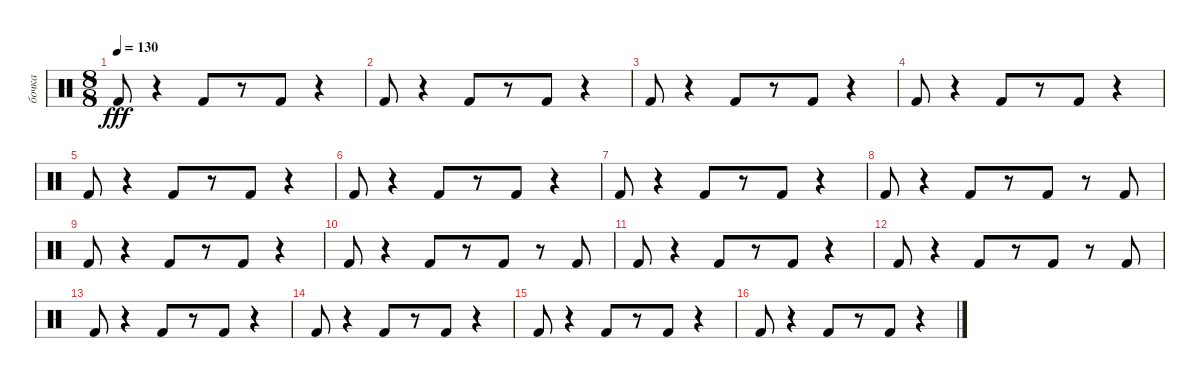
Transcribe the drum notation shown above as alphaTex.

\track ("бочка" "бочка") {instrument percussion}
\staff {score}
\articulation defaults
\ts (8 8)
\tempo 130
\clef neutral
\ks c "Kick (hit) 2".8{dy fff}
r.4 "Kick (hit) 2".8 r.8 "Kick (hit) 2".8 r.4 |
"Kick (hit) 2".8 r.4 "Kick (hit) 2".8 r.8 "Kick (hit) 2".8 r.4 |
"Kick (hit) 2".8 r.4 "Kick (hit) 2".8 r.8 "Kick (hit) 2".8 r.4 |
"Kick (hit) 2".8 r.4 "Kick (hit) 2".8 r.8 "Kick (hit) 2".8 r.4 |
"Kick (hit) 2".8 r.4 "Kick (hit) 2".8 r.8 "Kick (hit) 2".8 r.4 |
"Kick (hit) 2".8 r.4 "Kick (hit) 2".8 r.8 "Kick (hit) 2".8 r.4 |
"Kick (hit) 2".8 r.4 "Kick (hit) 2".8 r.8 "Kick (hit) 2".8 r.4 |
"Kick (hit) 2".8 r.4 "Kick (hit) 2".8 r.8 "Kick (hit) 2".8 r.8 "Kick (hit) 2".8 |
"Kick (hit) 2".8 r.4 "Kick (hit) 2".8 r.8 "Kick (hit) 2".8 r.4 |
"Kick (hit) 2".8 r.4 "Kick (hit) 2".8 r.8 "Kick (hit) 2".8 r.8 "Kick (hit) 2".8 |
"Kick (hit) 2".8 r.4 "Kick (hit) 2".8 r.8 "Kick (hit) 2".8 r.4 |
"Kick (hit) 2".8 r.4 "Kick (hit) 2".8 r.8 "Kick (hit) 2".8 r.8 "Kick (hit) 2".8 |
"Kick (hit) 2".8 r.4 "Kick (hit) 2".8 r.8 "Kick (hit) 2".8 r.4 |
"Kick (hit) 2".8 r.4 "Kick (hit) 2".8 r.8 "Kick (hit) 2".8 r.4 |
"Kick (hit) 2".8 r.4 "Kick (hit) 2".8 r.8 "Kick (hit) 2".8 r.4 |
"Kick (hit) 2".8 r.4 "Kick (hit) 2".8 r.8 "Kick (hit) 2".8 r.4
